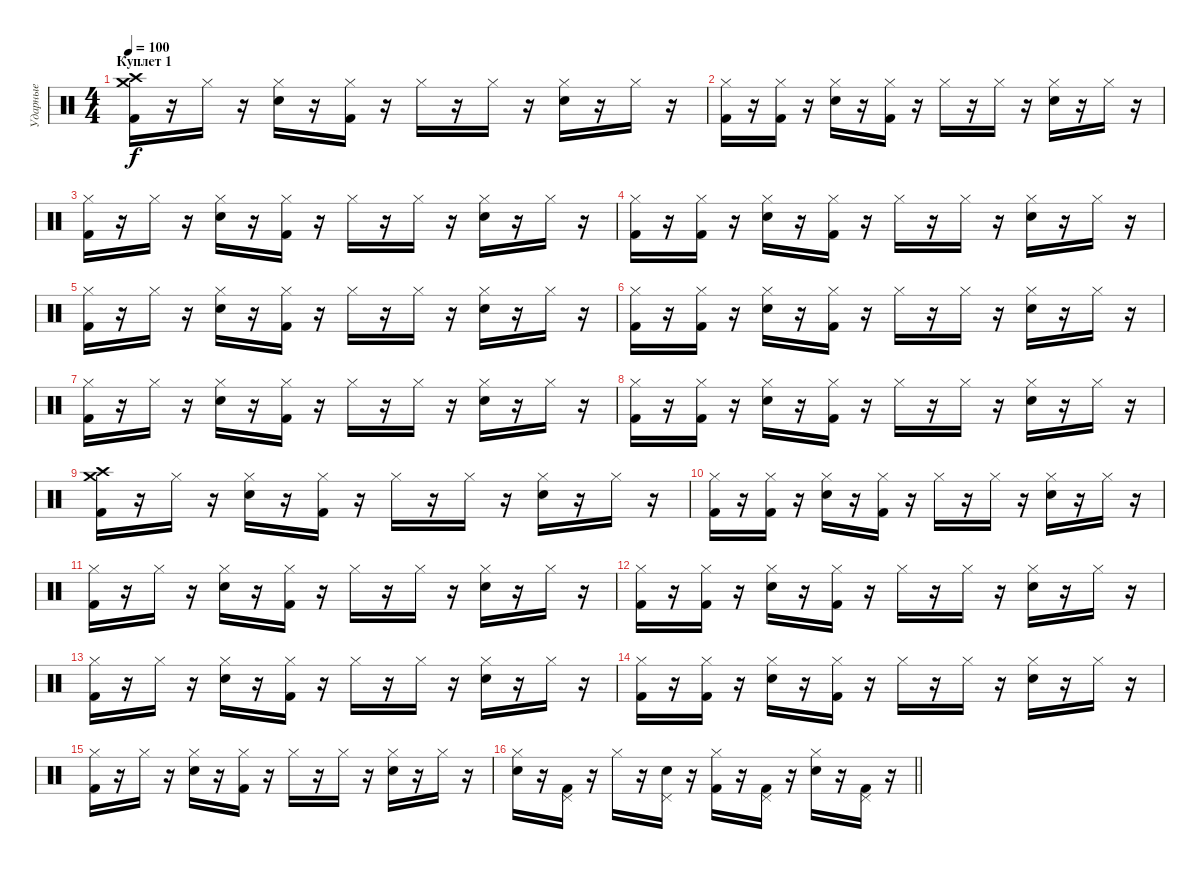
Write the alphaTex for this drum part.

\track ("Ударные" "Ударные") {instrument percussion}
\staff {score}
\articulation defaults
\ts (4 4)
\section ("" "Куплет 1")
\tempo 100
\clef neutral
\ks c
("Crash high (hit)" "Crash medium (hit)" "Kick (hit) 2").16{dy f} r.16 "Hi-Hat (closed)".16 r.16 ("Hi-Hat (closed)" "Electric Snare (hit)").16 r.16 ("Hi-Hat (closed)" "Kick (hit) 2").16 r.16 "Hi-Hat (closed)".16 r.16 "Hi-Hat (closed)".16 r.16 ("Hi-Hat (closed)" "Electric Snare (hit)").16 r.16 "Hi-Hat (closed)".16 r.16 |
("Hi-Hat (closed)" "Kick (hit) 2").16 r.16 ("Hi-Hat (closed)" "Kick (hit) 2").16 r.16 ("Hi-Hat (closed)" "Electric Snare (hit)").16 r.16 ("Hi-Hat (closed)" "Kick (hit) 2").16 r.16 "Hi-Hat (closed)".16 r.16 "Hi-Hat (closed)".16 r.16 ("Hi-Hat (closed)" "Electric Snare (hit)").16 r.16 "Hi-Hat (closed)".16 r.16 |
("Hi-Hat (closed)" "Kick (hit) 2").16 r.16 "Hi-Hat (closed)".16 r.16 ("Hi-Hat (closed)" "Electric Snare (hit)").16 r.16 ("Hi-Hat (closed)" "Kick (hit) 2").16 r.16 "Hi-Hat (closed)".16 r.16 "Hi-Hat (closed)".16 r.16 ("Hi-Hat (closed)" "Electric Snare (hit)").16 r.16 "Hi-Hat (closed)".16 r.16 |
("Hi-Hat (closed)" "Kick (hit) 2").16 r.16 ("Hi-Hat (closed)" "Kick (hit) 2").16 r.16 ("Hi-Hat (closed)" "Electric Snare (hit)").16 r.16 ("Hi-Hat (closed)" "Kick (hit) 2").16 r.16 "Hi-Hat (closed)".16 r.16 "Hi-Hat (closed)".16 r.16 ("Hi-Hat (closed)" "Electric Snare (hit)").16 r.16 "Hi-Hat (closed)".16 r.16 |
("Hi-Hat (closed)" "Kick (hit) 2").16 r.16 "Hi-Hat (closed)".16 r.16 ("Hi-Hat (closed)" "Electric Snare (hit)").16 r.16 ("Hi-Hat (closed)" "Kick (hit) 2").16 r.16 "Hi-Hat (closed)".16 r.16 "Hi-Hat (closed)".16 r.16 ("Hi-Hat (closed)" "Electric Snare (hit)").16 r.16 "Hi-Hat (closed)".16 r.16 |
("Hi-Hat (closed)" "Kick (hit) 2").16 r.16 ("Hi-Hat (closed)" "Kick (hit) 2").16 r.16 ("Hi-Hat (closed)" "Electric Snare (hit)").16 r.16 ("Hi-Hat (closed)" "Kick (hit) 2").16 r.16 "Hi-Hat (closed)".16 r.16 "Hi-Hat (closed)".16 r.16 ("Hi-Hat (closed)" "Electric Snare (hit)").16 r.16 "Hi-Hat (closed)".16 r.16 |
("Hi-Hat (closed)" "Kick (hit) 2").16 r.16 "Hi-Hat (closed)".16 r.16 ("Hi-Hat (closed)" "Electric Snare (hit)").16 r.16 ("Hi-Hat (closed)" "Kick (hit) 2").16 r.16 "Hi-Hat (closed)".16 r.16 "Hi-Hat (closed)".16 r.16 ("Hi-Hat (closed)" "Electric Snare (hit)").16 r.16 "Hi-Hat (closed)".16 r.16 |
("Hi-Hat (closed)" "Kick (hit) 2").16 r.16 ("Hi-Hat (closed)" "Kick (hit) 2").16 r.16 ("Hi-Hat (closed)" "Electric Snare (hit)").16 r.16 ("Hi-Hat (closed)" "Kick (hit) 2").16 r.16 "Hi-Hat (closed)".16 r.16 "Hi-Hat (closed)".16 r.16 ("Hi-Hat (closed)" "Electric Snare (hit)").16 r.16 "Hi-Hat (closed)".16 r.16 |
("Crash high (hit)" "Crash medium (hit)" "Kick (hit) 2").16 r.16 "Hi-Hat (closed)".16 r.16 ("Hi-Hat (closed)" "Electric Snare (hit)").16 r.16 ("Hi-Hat (closed)" "Kick (hit) 2").16 r.16 "Hi-Hat (closed)".16 r.16 "Hi-Hat (closed)".16 r.16 ("Hi-Hat (closed)" "Electric Snare (hit)").16 r.16 "Hi-Hat (closed)".16 r.16 |
("Hi-Hat (closed)" "Kick (hit) 2").16 r.16 ("Hi-Hat (closed)" "Kick (hit) 2").16 r.16 ("Hi-Hat (closed)" "Electric Snare (hit)").16 r.16 ("Hi-Hat (closed)" "Kick (hit) 2").16 r.16 "Hi-Hat (closed)".16 r.16 "Hi-Hat (closed)".16 r.16 ("Hi-Hat (closed)" "Electric Snare (hit)").16 r.16 "Hi-Hat (closed)".16 r.16 |
("Hi-Hat (closed)" "Kick (hit) 2").16 r.16 "Hi-Hat (closed)".16 r.16 ("Hi-Hat (closed)" "Electric Snare (hit)").16 r.16 ("Hi-Hat (closed)" "Kick (hit) 2").16 r.16 "Hi-Hat (closed)".16 r.16 "Hi-Hat (closed)".16 r.16 ("Hi-Hat (closed)" "Electric Snare (hit)").16 r.16 "Hi-Hat (closed)".16 r.16 |
("Hi-Hat (closed)" "Kick (hit) 2").16 r.16 ("Hi-Hat (closed)" "Kick (hit) 2").16 r.16 ("Hi-Hat (closed)" "Electric Snare (hit)").16 r.16 ("Hi-Hat (closed)" "Kick (hit) 2").16 r.16 "Hi-Hat (closed)".16 r.16 "Hi-Hat (closed)".16 r.16 ("Hi-Hat (closed)" "Electric Snare (hit)").16 r.16 "Hi-Hat (closed)".16 r.16 |
("Hi-Hat (closed)" "Kick (hit) 2").16 r.16 "Hi-Hat (closed)".16 r.16 ("Hi-Hat (closed)" "Electric Snare (hit)").16 r.16 ("Hi-Hat (closed)" "Kick (hit) 2").16 r.16 "Hi-Hat (closed)".16 r.16 "Hi-Hat (closed)".16 r.16 ("Hi-Hat (closed)" "Electric Snare (hit)").16 r.16 "Hi-Hat (closed)".16 r.16 |
("Hi-Hat (closed)" "Kick (hit) 2").16 r.16 ("Hi-Hat (closed)" "Kick (hit) 2").16 r.16 ("Hi-Hat (closed)" "Electric Snare (hit)").16 r.16 ("Hi-Hat (closed)" "Kick (hit) 2").16 r.16 "Hi-Hat (closed)".16 r.16 "Hi-Hat (closed)".16 r.16 ("Hi-Hat (closed)" "Electric Snare (hit)").16 r.16 "Hi-Hat (closed)".16 r.16 |
("Hi-Hat (closed)" "Kick (hit) 2").16 r.16 "Hi-Hat (closed)".16 r.16 ("Hi-Hat (closed)" "Electric Snare (hit)").16 r.16 ("Hi-Hat (closed)" "Kick (hit) 2").16 r.16 "Hi-Hat (closed)".16 r.16 "Hi-Hat (closed)".16 r.16 ("Hi-Hat (closed)" "Electric Snare (hit)").16 r.16 "Hi-Hat (closed)".16 r.16 |
\barLineRight lightlight
("Hi-Hat (closed)" "Electric Snare (hit)").16 r.16 ("Pedal Hi-Hat (hit)" "Kick (hit) 2").16 r.16 "Hi-Hat (closed)".16 r.16 ("Pedal Hi-Hat (hit)" "Electric Snare (hit)").16 r.16 ("Hi-Hat (closed)" "Kick (hit) 2").16 r.16 ("Pedal Hi-Hat (hit)" "Kick (hit) 2").16 r.16 ("Hi-Hat (closed)" "Electric Snare (hit)").16 r.16 ("Pedal Hi-Hat (hit)" "Kick (hit) 2").16 r.16
